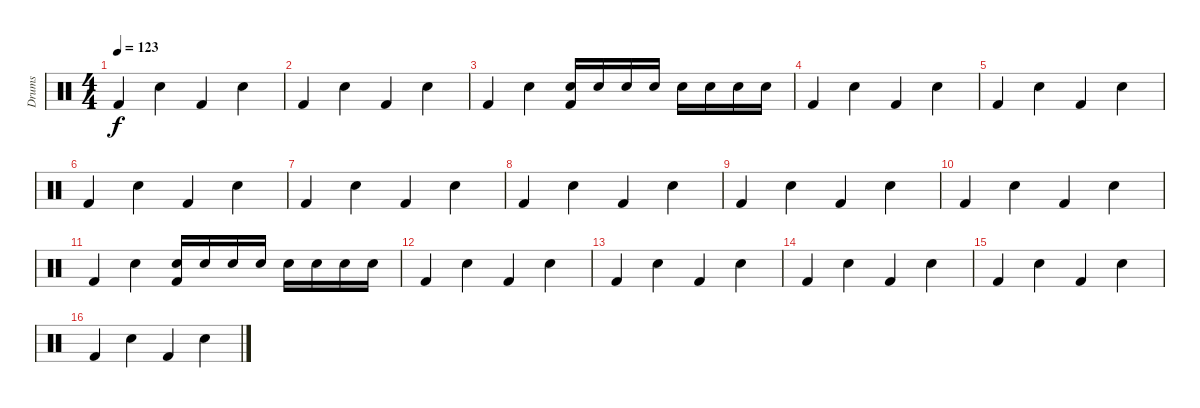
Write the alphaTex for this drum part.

\track ("Drums" "Drums") {instrument percussion}
\staff {score}
\articulation defaults
\ts (4 4)
\tempo 123
\clef neutral
\ks c "Kick (hit) 2".4{dy f} "Electric Snare (hit)".4 "Kick (hit) 2".4 "Electric Snare (hit)".4
|
"Kick (hit) 2".4 "Electric Snare (hit)".4 "Kick (hit) 2".4 "Electric Snare (hit)".4 |
"Kick (hit) 2".4 "Electric Snare (hit)".4 ("Kick (hit) 2" "Electric Snare (hit)").16 "Electric Snare (hit)".16 "Electric Snare (hit)".16 "Electric Snare (hit)".16 "Electric Snare (hit)".16 "Electric Snare (hit)".16 "Electric Snare (hit)".16 "Electric Snare (hit)".16 |
"Kick (hit) 2".4 "Electric Snare (hit)".4 "Kick (hit) 2".4 "Electric Snare (hit)".4 |
"Kick (hit) 2".4 "Electric Snare (hit)".4 "Kick (hit) 2".4 "Electric Snare (hit)".4 |
"Kick (hit) 2".4 "Electric Snare (hit)".4 "Kick (hit) 2".4 "Electric Snare (hit)".4 |
"Kick (hit) 2".4 "Electric Snare (hit)".4 "Kick (hit) 2".4 "Electric Snare (hit)".4 |
"Kick (hit) 2".4 "Electric Snare (hit)".4 "Kick (hit) 2".4 "Electric Snare (hit)".4 |
"Kick (hit) 2".4 "Electric Snare (hit)".4 "Kick (hit) 2".4 "Electric Snare (hit)".4 |
"Kick (hit) 2".4 "Electric Snare (hit)".4 "Kick (hit) 2".4 "Electric Snare (hit)".4 |
"Kick (hit) 2".4 "Electric Snare (hit)".4 ("Kick (hit) 2" "Electric Snare (hit)").16 "Electric Snare (hit)".16 "Electric Snare (hit)".16 "Electric Snare (hit)".16 "Electric Snare (hit)".16 "Electric Snare (hit)".16 "Electric Snare (hit)".16 "Electric Snare (hit)".16 |
"Kick (hit) 2".4 "Electric Snare (hit)".4 "Kick (hit) 2".4 "Electric Snare (hit)".4 |
"Kick (hit) 2".4 "Electric Snare (hit)".4 "Kick (hit) 2".4 "Electric Snare (hit)".4 |
"Kick (hit) 2".4 "Electric Snare (hit)".4 "Kick (hit) 2".4 "Electric Snare (hit)".4 |
"Kick (hit) 2".4 "Electric Snare (hit)".4 "Kick (hit) 2".4 "Electric Snare (hit)".4 |
"Kick (hit) 2".4 "Electric Snare (hit)".4 "Kick (hit) 2".4 "Electric Snare (hit)".4
